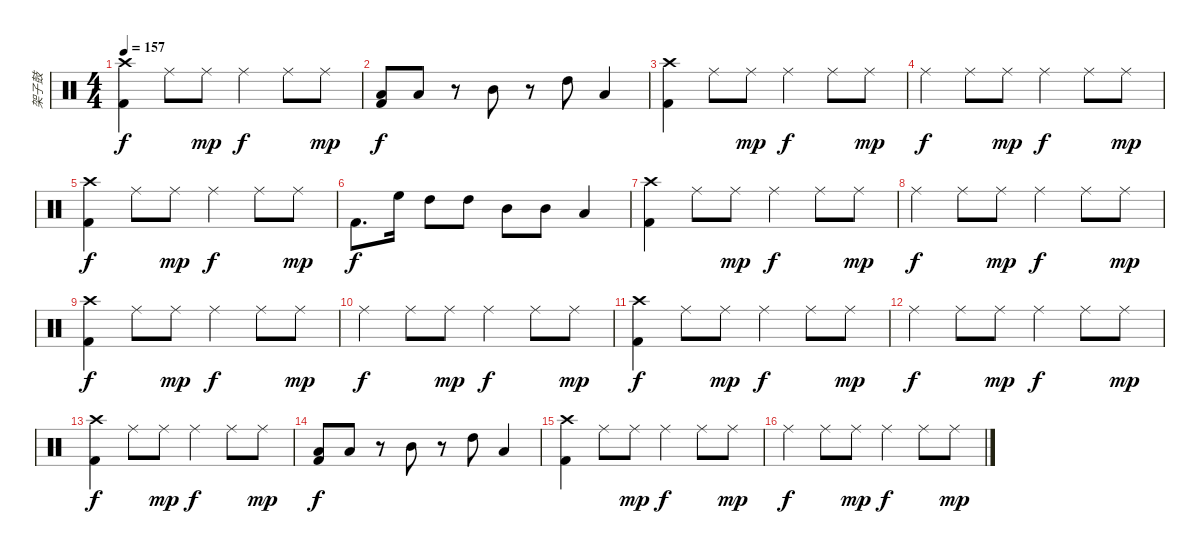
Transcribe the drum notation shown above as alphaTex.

\track ("架子鼓" "架子鼓") {instrument percussion}
\staff {score}
\articulation defaults
\ts (4 4)
\tempo 157
\clef neutral
\ks c
("Crash high (hit)" "Kick (hit) 2").4{dy f} "Ride (middle)".8 "Ride (middle)".8{dy mp} "Ride (middle)".4{dy f} "Ride (middle)".8 "Ride (middle)".8{dy mp} |
("Low Tom (hit)" "Kick (hit) 2").8{dy f} "Low Tom (hit)".8 r.8 "Mid Tom (hit)".8 r.8 "High Tom (hit)".8 "Low Tom (hit)".4 |
("Crash high (hit)" "Kick (hit) 2").4 "Ride (middle)".8 "Ride (middle)".8{dy mp} "Ride (middle)".4{dy f} "Ride (middle)".8 "Ride (middle)".8{dy mp} |
"Ride (middle)".4{dy f} "Ride (middle)".8 "Ride (middle)".8{dy mp} "Ride (middle)".4{dy f} "Ride (middle)".8 "Ride (middle)".8{dy mp} |
("Crash high (hit)" "Kick (hit) 2").4{dy f} "Ride (middle)".8 "Ride (middle)".8{dy mp} "Ride (middle)".4{dy f} "Ride (middle)".8 "Ride (middle)".8{dy mp} |
"Kick (hit) 2".8{d dy f} "High Floor Tom (hit)".16 "High Tom (hit)".8 "High Tom (hit)".8 "Mid Tom (hit)".8 "Mid Tom (hit)".8 "Low Tom (hit)".4 |
("Crash high (hit)" "Kick (hit) 2").4 "Ride (middle)".8 "Ride (middle)".8{dy mp} "Ride (middle)".4{dy f} "Ride (middle)".8 "Ride (middle)".8{dy mp} |
"Ride (middle)".4{dy f} "Ride (middle)".8 "Ride (middle)".8{dy mp} "Ride (middle)".4{dy f} "Ride (middle)".8 "Ride (middle)".8{dy mp} |
("Crash high (hit)" "Kick (hit) 2").4{dy f} "Ride (middle)".8 "Ride (middle)".8{dy mp} "Ride (middle)".4{dy f} "Ride (middle)".8 "Ride (middle)".8{dy mp} |
"Ride (middle)".4{dy f} "Ride (middle)".8 "Ride (middle)".8{dy mp} "Ride (middle)".4{dy f} "Ride (middle)".8 "Ride (middle)".8{dy mp} |
("Crash high (hit)" "Kick (hit) 2").4{dy f} "Ride (middle)".8 "Ride (middle)".8{dy mp} "Ride (middle)".4{dy f} "Ride (middle)".8 "Ride (middle)".8{dy mp} |
"Ride (middle)".4{dy f} "Ride (middle)".8 "Ride (middle)".8{dy mp} "Ride (middle)".4{dy f} "Ride (middle)".8 "Ride (middle)".8{dy mp} |
("Crash high (hit)" "Kick (hit) 2").4{dy f} "Ride (middle)".8 "Ride (middle)".8{dy mp} "Ride (middle)".4{dy f} "Ride (middle)".8 "Ride (middle)".8{dy mp} |
("Low Tom (hit)" "Kick (hit) 2").8{dy f} "Low Tom (hit)".8 r.8 "Mid Tom (hit)".8 r.8 "High Tom (hit)".8 "Low Tom (hit)".4 |
("Crash high (hit)" "Kick (hit) 2").4 "Ride (middle)".8 "Ride (middle)".8{dy mp} "Ride (middle)".4{dy f} "Ride (middle)".8 "Ride (middle)".8{dy mp} |
"Ride (middle)".4{dy f} "Ride (middle)".8 "Ride (middle)".8{dy mp} "Ride (middle)".4{dy f} "Ride (middle)".8 "Ride (middle)".8{dy mp}
